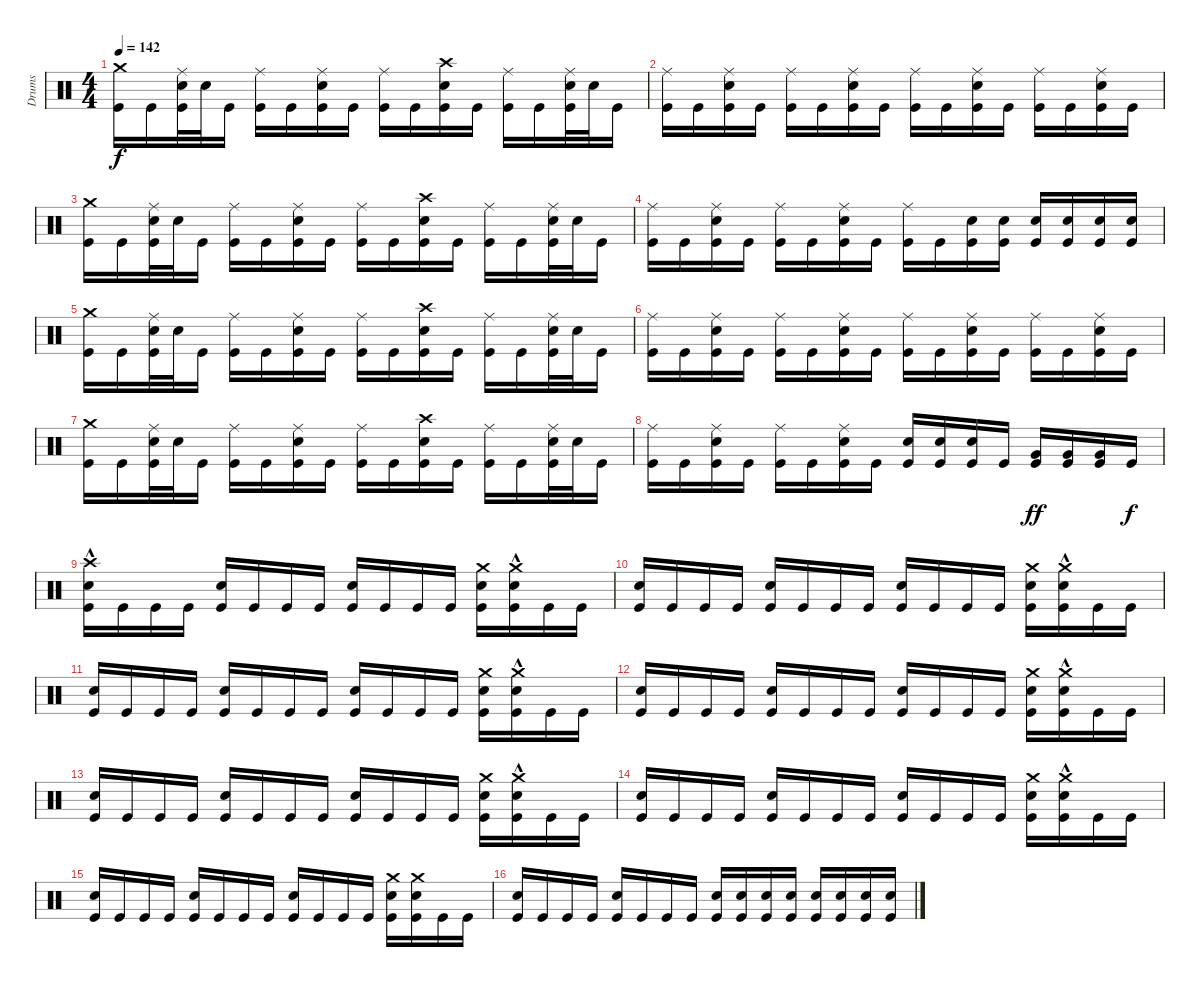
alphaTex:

\track ("Drums" "Drums") {instrument percussion}
\staff {score}
\articulation defaults
\ts (4 4)
\tempo 142
\clef neutral
\ks c
("Crash medium (hit)" "Kick (hit)").16{dy f} "Kick (hit)".16 ("Ride (middle)" "Snare (hit) 2" "Kick (hit)").32 "Snare (hit) 2".32 "Kick (hit)".16 ("Ride (middle)" "Kick (hit)").16 "Kick (hit)".16 ("Ride (middle)" "Snare (hit) 2" "Kick (hit)").16 "Kick (hit)".16 ("Ride (middle)" "Kick (hit)").16 "Kick (hit)".16 ("Crash high (hit)" "Snare (hit) 2" "Kick (hit)").16 "Kick (hit)".16 ("Ride (middle)" "Kick (hit)").16 "Kick (hit)".16 ("Ride (middle)" "Snare (hit) 2" "Kick (hit)").32 "Snare (hit) 2".32 "Kick (hit)".16 |
("Ride (middle)" "Kick (hit)").16 "Kick (hit)".16 ("Ride (middle)" "Snare (hit) 2" "Kick (hit)").16 "Kick (hit)".16 ("Ride (middle)" "Kick (hit)").16 "Kick (hit)".16 ("Ride (middle)" "Snare (hit) 2" "Kick (hit)").16 "Kick (hit)".16 ("Ride (middle)" "Kick (hit)").16 "Kick (hit)".16 ("Ride (middle)" "Snare (hit) 2" "Kick (hit)").16 "Kick (hit)".16 ("Ride (middle)" "Kick (hit)").16 "Kick (hit)".16 ("Ride (middle)" "Snare (hit) 2" "Kick (hit)").16 "Kick (hit)".16 |
("Crash medium (hit)" "Kick (hit)").16 "Kick (hit)".16 ("Ride (middle)" "Snare (hit) 2" "Kick (hit)").32 "Snare (hit) 2".32 "Kick (hit)".16 ("Ride (middle)" "Kick (hit)").16 "Kick (hit)".16 ("Ride (middle)" "Snare (hit) 2" "Kick (hit)").16 "Kick (hit)".16 ("Ride (middle)" "Kick (hit)").16 "Kick (hit)".16 ("Crash high (hit)" "Snare (hit) 2" "Kick (hit)").16 "Kick (hit)".16 ("Ride (middle)" "Kick (hit)").16 "Kick (hit)".16 ("Ride (middle)" "Snare (hit) 2" "Kick (hit)").32 "Snare (hit) 2".32 "Kick (hit)".16 |
("Ride (middle)" "Kick (hit)").16 "Kick (hit)".16 ("Ride (middle)" "Snare (hit) 2" "Kick (hit)").16 "Kick (hit)".16 ("Ride (middle)" "Kick (hit)").16 "Kick (hit)".16 ("Ride (middle)" "Snare (hit) 2" "Kick (hit)").16 "Kick (hit)".16 ("Ride (middle)" "Kick (hit)").16 "Kick (hit)".16 ("Snare (hit) 2" "Kick (hit)").16 ("Snare (hit) 2" "Kick (hit)").16 ("Snare (hit) 2" "Kick (hit)").16 ("Snare (hit) 2" "Kick (hit)").16 ("Snare (hit) 2" "Kick (hit)").16 ("Snare (hit) 2" "Kick (hit)").16 |
("Crash medium (hit)" "Kick (hit)").16 "Kick (hit)".16 ("Ride (middle)" "Snare (hit) 2" "Kick (hit)").32 "Snare (hit) 2".32 "Kick (hit)".16 ("Ride (middle)" "Kick (hit)").16 "Kick (hit)".16 ("Ride (middle)" "Snare (hit) 2" "Kick (hit)").16 "Kick (hit)".16 ("Ride (middle)" "Kick (hit)").16 "Kick (hit)".16 ("Crash high (hit)" "Snare (hit) 2" "Kick (hit)").16 "Kick (hit)".16 ("Ride (middle)" "Kick (hit)").16 "Kick (hit)".16 ("Ride (middle)" "Snare (hit) 2" "Kick (hit)").32 "Snare (hit) 2".32 "Kick (hit)".16 |
("Ride (middle)" "Kick (hit)").16 "Kick (hit)".16 ("Ride (middle)" "Snare (hit) 2" "Kick (hit)").16 "Kick (hit)".16 ("Ride (middle)" "Kick (hit)").16 "Kick (hit)".16 ("Ride (middle)" "Snare (hit) 2" "Kick (hit)").16 "Kick (hit)".16 ("Ride (middle)" "Kick (hit)").16 "Kick (hit)".16 ("Ride (middle)" "Snare (hit) 2" "Kick (hit)").16 "Kick (hit)".16 ("Ride (middle)" "Kick (hit)").16 "Kick (hit)".16 ("Ride (middle)" "Snare (hit) 2" "Kick (hit)").16 "Kick (hit)".16 |
("Crash medium (hit)" "Kick (hit)").16 "Kick (hit)".16 ("Ride (middle)" "Snare (hit) 2" "Kick (hit)").32 "Snare (hit) 2".32 "Kick (hit)".16 ("Ride (middle)" "Kick (hit)").16 "Kick (hit)".16 ("Ride (middle)" "Snare (hit) 2" "Kick (hit)").16 "Kick (hit)".16 ("Ride (middle)" "Kick (hit)").16 "Kick (hit)".16 ("Crash high (hit)" "Snare (hit) 2" "Kick (hit)").16 "Kick (hit)".16 ("Ride (middle)" "Kick (hit)").16 "Kick (hit)".16 ("Ride (middle)" "Snare (hit) 2" "Kick (hit)").32 "Snare (hit) 2".32 "Kick (hit)".16 |
("Ride (middle)" "Kick (hit)").16 "Kick (hit)".16 ("Ride (middle)" "Snare (hit) 2" "Kick (hit)").16 "Kick (hit)".16 ("Ride (middle)" "Kick (hit)").16 "Kick (hit)".16 ("Ride (middle)" "Snare (hit) 2" "Kick (hit)").16 "Kick (hit)".16 ("Snare (hit) 2" "Kick (hit)").16 ("Snare (hit) 2" "Kick (hit)").16 ("Snare (hit) 2" "Kick (hit)").16 "Kick (hit)".16 ("Very Low Tom (hit)" "Kick (hit)").16{dy ff} ("Very Low Tom (hit)" "Kick (hit)").16 ("Very Low Tom (hit)" "Kick (hit)").16 "Kick (hit)".16{dy f} |
("Crash high (hit)"{hac} "Snare (hit) 2" "Kick (hit)").16 "Kick (hit)".16 "Kick (hit)".16 "Kick (hit)".16 ("Snare (hit) 2" "Kick (hit)").16 "Kick (hit)".16 "Kick (hit)".16 "Kick (hit)".16 ("Snare (hit) 2" "Kick (hit)").16 "Kick (hit)".16 "Kick (hit)".16 "Kick (hit)".16 ("Crash medium (hit)" "Snare (hit) 2" "Kick (hit)").16 ("Crash medium (hit)"{hac} "Snare (hit) 2" "Kick (hit)").16 "Kick (hit)".16 "Kick (hit)".16 |
("Snare (hit) 2" "Kick (hit)").16 "Kick (hit)".16 "Kick (hit)".16 "Kick (hit)".16 ("Snare (hit) 2" "Kick (hit)").16 "Kick (hit)".16 "Kick (hit)".16 "Kick (hit)".16 ("Snare (hit) 2" "Kick (hit)").16 "Kick (hit)".16 "Kick (hit)".16 "Kick (hit)".16 ("Crash medium (hit)" "Snare (hit) 2" "Kick (hit)").16 ("Crash medium (hit)"{hac} "Snare (hit) 2" "Kick (hit)").16 "Kick (hit)".16 "Kick (hit)".16 |
("Snare (hit) 2" "Kick (hit)").16 "Kick (hit)".16 "Kick (hit)".16 "Kick (hit)".16 ("Snare (hit) 2" "Kick (hit)").16 "Kick (hit)".16 "Kick (hit)".16 "Kick (hit)".16 ("Snare (hit) 2" "Kick (hit)").16 "Kick (hit)".16 "Kick (hit)".16 "Kick (hit)".16 ("Crash medium (hit)" "Snare (hit) 2" "Kick (hit)").16 ("Crash medium (hit)"{hac} "Snare (hit) 2" "Kick (hit)").16 "Kick (hit)".16 "Kick (hit)".16 |
("Snare (hit) 2" "Kick (hit)").16 "Kick (hit)".16 "Kick (hit)".16 "Kick (hit)".16 ("Snare (hit) 2" "Kick (hit)").16 "Kick (hit)".16 "Kick (hit)".16 "Kick (hit)".16 ("Snare (hit) 2" "Kick (hit)").16 "Kick (hit)".16 "Kick (hit)".16 "Kick (hit)".16 ("Crash medium (hit)" "Snare (hit) 2" "Kick (hit)").16 ("Crash medium (hit)"{hac} "Snare (hit) 2" "Kick (hit)").16 "Kick (hit)".16 "Kick (hit)".16 |
("Snare (hit) 2" "Kick (hit)").16 "Kick (hit)".16 "Kick (hit)".16 "Kick (hit)".16 ("Snare (hit) 2" "Kick (hit)").16 "Kick (hit)".16 "Kick (hit)".16 "Kick (hit)".16 ("Snare (hit) 2" "Kick (hit)").16 "Kick (hit)".16 "Kick (hit)".16 "Kick (hit)".16 ("Crash medium (hit)" "Snare (hit) 2" "Kick (hit)").16 ("Crash medium (hit)"{hac} "Snare (hit) 2" "Kick (hit)").16 "Kick (hit)".16 "Kick (hit)".16 |
("Snare (hit) 2" "Kick (hit)").16 "Kick (hit)".16 "Kick (hit)".16 "Kick (hit)".16 ("Snare (hit) 2" "Kick (hit)").16 "Kick (hit)".16 "Kick (hit)".16 "Kick (hit)".16 ("Snare (hit) 2" "Kick (hit)").16 "Kick (hit)".16 "Kick (hit)".16 "Kick (hit)".16 ("Crash medium (hit)" "Snare (hit) 2" "Kick (hit)").16 ("Crash medium (hit)"{hac} "Snare (hit) 2" "Kick (hit)").16 "Kick (hit)".16 "Kick (hit)".16 |
("Snare (hit) 2" "Kick (hit)").16 "Kick (hit)".16 "Kick (hit)".16 "Kick (hit)".16 ("Snare (hit) 2" "Kick (hit)").16 "Kick (hit)".16 "Kick (hit)".16 "Kick (hit)".16 ("Snare (hit) 2" "Kick (hit)").16 "Kick (hit)".16 "Kick (hit)".16 "Kick (hit)".16 ("Crash medium (hit)" "Snare (hit) 2" "Kick (hit)").16 ("Crash medium (hit)" "Snare (hit) 2" "Kick (hit)").16 "Kick (hit)".16 "Kick (hit)".16 |
("Snare (hit) 2" "Kick (hit)").16 "Kick (hit)".16 "Kick (hit)".16 "Kick (hit)".16 ("Snare (hit) 2" "Kick (hit)").16 "Kick (hit)".16 "Kick (hit)".16 "Kick (hit)".16 ("Snare (hit) 2" "Kick (hit)").16 ("Snare (hit) 2" "Kick (hit)").16 ("Snare (hit) 2" "Kick (hit)").16 ("Snare (hit) 2" "Kick (hit)").16 ("Snare (hit) 2" "Kick (hit)").16 ("Snare (hit) 2" "Kick (hit)").16 ("Snare (hit) 2" "Kick (hit)").16 ("Snare (hit) 2" "Kick (hit)").16
